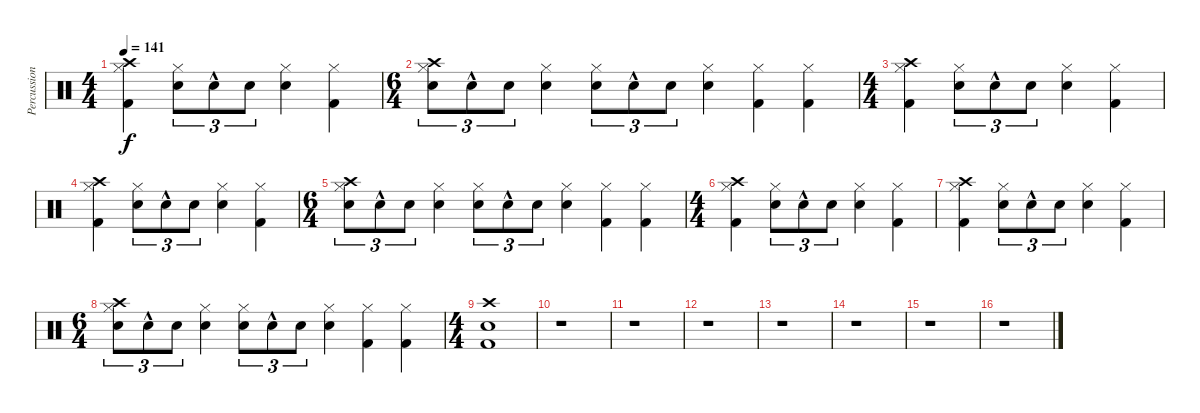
\track ("Percussion" "Percussion") {instrument percussion}
\staff {score}
\articulation defaults
\ts (4 4)
\tempo 141
\clef neutral
\ks c
("Kick (hit) 2" "Hi-Hat (closed)" "Crash high (hit)").4{dy f} ("Snare (hit) 2" "Hi-Hat (closed)").8{tu (3 2)} "Snare (hit) 2"{hac}.8{tu (3 2)} "Snare (hit) 2".8{tu (3 2)} ("Snare (hit) 2" "Hi-Hat (closed)").4 ("Kick (hit) 2" "Hi-Hat (closed)").4 |
\ts (6 4)
("Snare (hit) 2" "Hi-Hat (closed)" "Crash high (hit)").8{tu (3 2)} "Snare (hit) 2"{hac}.8{tu (3 2)} "Snare (hit) 2".8{tu (3 2)} ("Snare (hit) 2" "Hi-Hat (closed)").4 ("Snare (hit) 2" "Hi-Hat (closed)").8{tu (3 2)} "Snare (hit) 2"{hac}.8{tu (3 2)} "Snare (hit) 2".8{tu (3 2)} ("Snare (hit) 2" "Hi-Hat (closed)").4 ("Kick (hit) 2" "Hi-Hat (closed)").4 ("Kick (hit) 2" "Hi-Hat (closed)").4 |
\ts (4 4)
("Kick (hit) 2" "Hi-Hat (closed)" "Crash high (hit)").4 ("Snare (hit) 2" "Hi-Hat (closed)").8{tu (3 2)} "Snare (hit) 2"{hac}.8{tu (3 2)} "Snare (hit) 2".8{tu (3 2)} ("Snare (hit) 2" "Hi-Hat (closed)").4 ("Kick (hit) 2" "Hi-Hat (closed)").4 |
("Kick (hit) 2" "Hi-Hat (closed)" "Crash high (hit)").4 ("Snare (hit) 2" "Hi-Hat (closed)").8{tu (3 2)} "Snare (hit) 2"{hac}.8{tu (3 2)} "Snare (hit) 2".8{tu (3 2)} ("Snare (hit) 2" "Hi-Hat (closed)").4 ("Kick (hit) 2" "Hi-Hat (closed)").4 |
\ts (6 4)
("Snare (hit) 2" "Hi-Hat (closed)" "Crash high (hit)").8{tu (3 2)} "Snare (hit) 2"{hac}.8{tu (3 2)} "Snare (hit) 2".8{tu (3 2)} ("Snare (hit) 2" "Hi-Hat (closed)").4 ("Snare (hit) 2" "Hi-Hat (closed)").8{tu (3 2)} "Snare (hit) 2"{hac}.8{tu (3 2)} "Snare (hit) 2".8{tu (3 2)} ("Snare (hit) 2" "Hi-Hat (closed)").4 ("Kick (hit) 2" "Hi-Hat (closed)").4 ("Kick (hit) 2" "Hi-Hat (closed)").4 |
\ts (4 4)
("Kick (hit) 2" "Hi-Hat (closed)" "Crash high (hit)").4 ("Snare (hit) 2" "Hi-Hat (closed)").8{tu (3 2)} "Snare (hit) 2"{hac}.8{tu (3 2)} "Snare (hit) 2".8{tu (3 2)} ("Snare (hit) 2" "Hi-Hat (closed)").4 ("Kick (hit) 2" "Hi-Hat (closed)").4 |
("Kick (hit) 2" "Hi-Hat (closed)" "Crash high (hit)").4 ("Snare (hit) 2" "Hi-Hat (closed)").8{tu (3 2)} "Snare (hit) 2"{hac}.8{tu (3 2)} "Snare (hit) 2".8{tu (3 2)} ("Snare (hit) 2" "Hi-Hat (closed)").4 ("Kick (hit) 2" "Hi-Hat (closed)").4 |
\ts (6 4)
("Snare (hit) 2" "Hi-Hat (closed)" "Crash high (hit)").8{tu (3 2)} "Snare (hit) 2"{hac}.8{tu (3 2)} "Snare (hit) 2".8{tu (3 2)} ("Snare (hit) 2" "Hi-Hat (closed)").4 ("Snare (hit) 2" "Hi-Hat (closed)").8{tu (3 2)} "Snare (hit) 2"{hac}.8{tu (3 2)} "Snare (hit) 2".8{tu (3 2)} ("Snare (hit) 2" "Hi-Hat (closed)").4 ("Kick (hit) 2" "Hi-Hat (closed)").4 ("Kick (hit) 2" "Hi-Hat (closed)").4 |
\ts (4 4)
("Kick (hit) 2" "Snare (hit) 2" "Crash high (hit)").1 |
r.1 |
r.1 |
r.1 |
r.1 |
r.1 |
r.1 |
r.1
